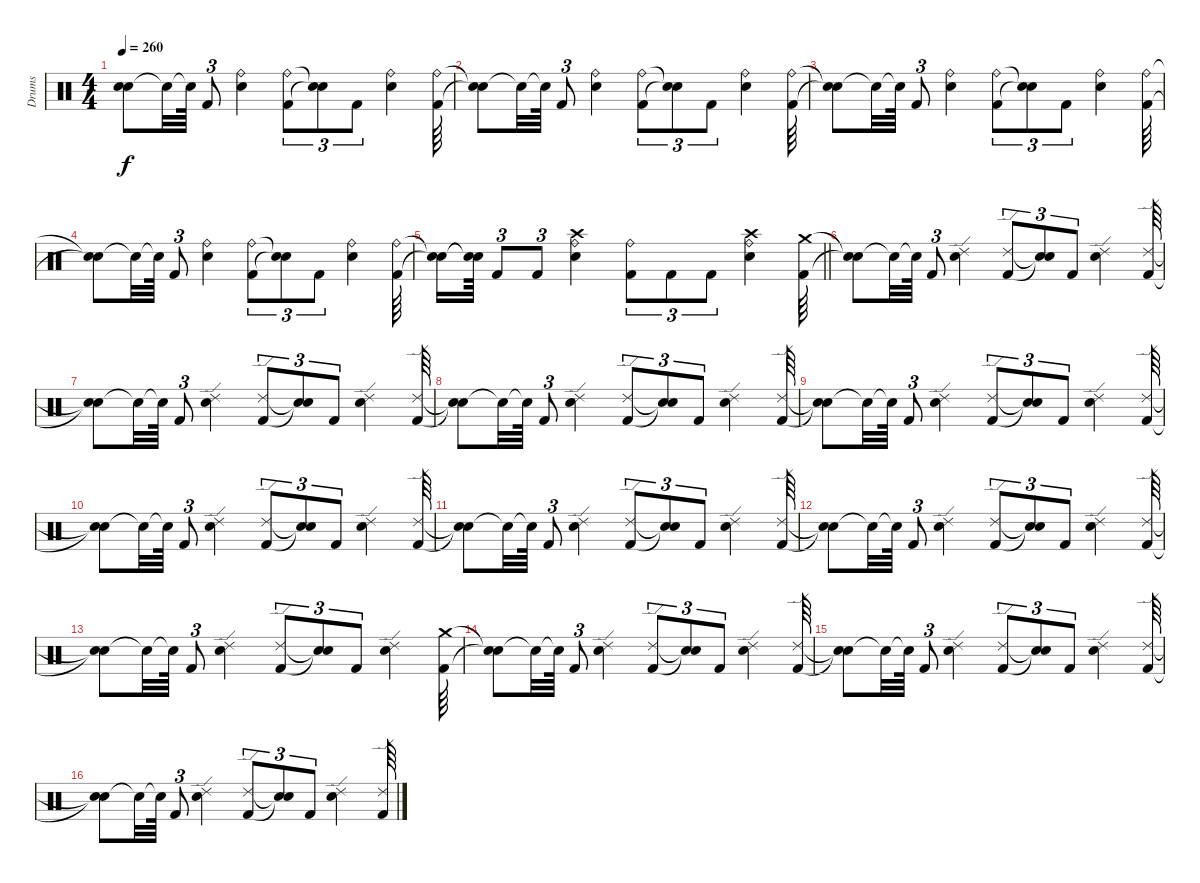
\track ("Drums" "Drums") {instrument percussion}
\staff {score}
\articulation defaults
\ts (4 4)
\tempo 260
\clef neutral
\ks c
("Snare (hit)"{t} "Snare (hit)"{t}).8{dy f} "Snare (hit)"{t}.32 "Snare (hit)"{t}.64 "Kick (hit) 2".8{tu (3 2)} ("Electric Snare (hit)" "Ride (bell)").4 ("Kick (hit) 2" "Ride (bell)").8{tu (3 2)} ("Snare (hit)"{t} "Snare (hit)"{t}).8{tu (3 2)} "Kick (hit) 2".8{tu (3 2)} ("Electric Snare (hit)" "Ride (bell)").4 ("Kick (hit) 2" "Ride (bell)").64 |
("Snare (hit)"{t} "Snare (hit)"{t}).8 "Snare (hit)"{t}.32 "Snare (hit)"{t}.64 "Kick (hit) 2".8{tu (3 2)} ("Electric Snare (hit)" "Ride (bell)").4 ("Kick (hit) 2" "Ride (bell)").8{tu (3 2)} ("Snare (hit)"{t} "Snare (hit)"{t}).8{tu (3 2)} "Kick (hit) 2".8{tu (3 2)} ("Electric Snare (hit)" "Ride (bell)").4 ("Kick (hit) 2" "Ride (bell)").64 |
("Snare (hit)"{t} "Snare (hit)"{t}).8 "Snare (hit)"{t}.32 "Snare (hit)"{t}.64 "Kick (hit) 2".8{tu (3 2)} ("Electric Snare (hit)" "Ride (bell)").4 ("Kick (hit) 2" "Ride (bell)").8{tu (3 2)} ("Snare (hit)"{t} "Snare (hit)"{t}).8{tu (3 2)} "Kick (hit) 2".8{tu (3 2)} ("Electric Snare (hit)" "Ride (bell)").4 ("Kick (hit) 2" "Ride (bell)").64 |
("Snare (hit)"{t} "Snare (hit)"{t}).8 "Snare (hit)"{t}.32 "Snare (hit)"{t}.64 "Kick (hit) 2".8{tu (3 2)} ("Electric Snare (hit)" "Ride (bell)").4 ("Kick (hit) 2" "Ride (bell)").8{tu (3 2)} ("Snare (hit)"{t} "Snare (hit)"{t}).8{tu (3 2)} "Kick (hit) 2".8{tu (3 2)} ("Electric Snare (hit)" "Ride (bell)").4 ("Kick (hit) 2" "Ride (bell)").64 |
\barLineRight lightlight
("Snare (hit)"{t} "Snare (hit)"{t}).16 ("Snare (hit)"{t} "Snare (hit)"{t}).64 "Kick (hit) 2".8{tu (3 2)} "Kick (hit) 2".8{tu (3 2)} ("Electric Snare (hit)" "Ride (bell)" "Crash high (hit)").4 ("Kick (hit) 2" "Ride (bell)").8{tu (3 2)} "Kick (hit) 2".8{tu (3 2)} "Kick (hit) 2".8{tu (3 2)} ("Electric Snare (hit)" "Ride (bell)" "Crash high (hit)").4 ("Kick (hit) 2" "Crash medium (hit)").64 |
("Snare (hit)"{t} "Snare (hit)"{t}).8 "Snare (hit)"{t}.32 "Snare (hit)"{t}.64 "Kick (hit) 2".8{tu (3 2)} ("Electric Snare (hit)" "Ride (edge) 2").4 ("Kick (hit) 2" "Ride (edge) 2").8{tu (3 2)} ("Snare (hit)"{t} "Snare (hit)"{t}).8{tu (3 2)} "Kick (hit) 2".8{tu (3 2)} ("Electric Snare (hit)" "Ride (edge) 2").4 ("Kick (hit) 2" "Ride (edge) 2").64 |
("Snare (hit)"{t} "Snare (hit)"{t}).8 "Snare (hit)"{t}.32 "Snare (hit)"{t}.64 "Kick (hit) 2".8{tu (3 2)} ("Electric Snare (hit)" "Ride (edge) 2").4 ("Kick (hit) 2" "Ride (edge) 2").8{tu (3 2)} ("Snare (hit)"{t} "Snare (hit)"{t}).8{tu (3 2)} "Kick (hit) 2".8{tu (3 2)} ("Electric Snare (hit)" "Ride (edge) 2").4 ("Kick (hit) 2" "Ride (edge) 2").64 |
("Snare (hit)"{t} "Snare (hit)"{t}).8 "Snare (hit)"{t}.32 "Snare (hit)"{t}.64 "Kick (hit) 2".8{tu (3 2)} ("Electric Snare (hit)" "Ride (edge) 2").4 ("Kick (hit) 2" "Ride (edge) 2").8{tu (3 2)} ("Snare (hit)"{t} "Snare (hit)"{t}).8{tu (3 2)} "Kick (hit) 2".8{tu (3 2)} ("Electric Snare (hit)" "Ride (edge) 2").4 ("Kick (hit) 2" "Ride (edge) 2").64 |
("Snare (hit)"{t} "Snare (hit)"{t}).8 "Snare (hit)"{t}.32 "Snare (hit)"{t}.64 "Kick (hit) 2".8{tu (3 2)} ("Electric Snare (hit)" "Ride (edge) 2").4 ("Kick (hit) 2" "Ride (edge) 2").8{tu (3 2)} ("Snare (hit)"{t} "Snare (hit)"{t}).8{tu (3 2)} "Kick (hit) 2".8{tu (3 2)} ("Electric Snare (hit)" "Ride (edge) 2").4 ("Kick (hit) 2" "Ride (edge) 2").64 |
("Snare (hit)"{t} "Snare (hit)"{t}).8 "Snare (hit)"{t}.32 "Snare (hit)"{t}.64 "Kick (hit) 2".8{tu (3 2)} ("Electric Snare (hit)" "Ride (edge) 2").4 ("Kick (hit) 2" "Ride (edge) 2").8{tu (3 2)} ("Snare (hit)"{t} "Snare (hit)"{t}).8{tu (3 2)} "Kick (hit) 2".8{tu (3 2)} ("Electric Snare (hit)" "Ride (edge) 2").4 ("Kick (hit) 2" "Ride (edge) 2").64 |
("Snare (hit)"{t} "Snare (hit)"{t}).8 "Snare (hit)"{t}.32 "Snare (hit)"{t}.64 "Kick (hit) 2".8{tu (3 2)} ("Electric Snare (hit)" "Ride (edge) 2").4 ("Kick (hit) 2" "Ride (edge) 2").8{tu (3 2)} ("Snare (hit)"{t} "Snare (hit)"{t}).8{tu (3 2)} "Kick (hit) 2".8{tu (3 2)} ("Electric Snare (hit)" "Ride (edge) 2").4 ("Kick (hit) 2" "Ride (edge) 2").64 |
("Snare (hit)"{t} "Snare (hit)"{t}).8 "Snare (hit)"{t}.32 "Snare (hit)"{t}.64 "Kick (hit) 2".8{tu (3 2)} ("Electric Snare (hit)" "Ride (edge) 2").4 ("Kick (hit) 2" "Ride (edge) 2").8{tu (3 2)} ("Snare (hit)"{t} "Snare (hit)"{t}).8{tu (3 2)} "Kick (hit) 2".8{tu (3 2)} ("Electric Snare (hit)" "Ride (edge) 2").4 ("Kick (hit) 2" "Ride (edge) 2").64 |
("Snare (hit)"{t} "Snare (hit)"{t}).8 "Snare (hit)"{t}.32 "Snare (hit)"{t}.64 "Kick (hit) 2".8{tu (3 2)} ("Electric Snare (hit)" "Ride (edge) 2").4 ("Kick (hit) 2" "Ride (edge) 2").8{tu (3 2)} ("Snare (hit)"{t} "Snare (hit)"{t}).8{tu (3 2)} "Kick (hit) 2".8{tu (3 2)} ("Electric Snare (hit)" "Ride (edge) 2").4 ("Kick (hit) 2" "Crash medium (hit)").64 |
("Snare (hit)"{t} "Snare (hit)"{t}).8 "Snare (hit)"{t}.32 "Snare (hit)"{t}.64 "Kick (hit) 2".8{tu (3 2)} ("Electric Snare (hit)" "Ride (edge) 2").4 ("Kick (hit) 2" "Ride (edge) 2").8{tu (3 2)} ("Snare (hit)"{t} "Snare (hit)"{t}).8{tu (3 2)} "Kick (hit) 2".8{tu (3 2)} ("Electric Snare (hit)" "Ride (edge) 2").4 ("Kick (hit) 2" "Ride (edge) 2").64 |
("Snare (hit)"{t} "Snare (hit)"{t}).8 "Snare (hit)"{t}.32 "Snare (hit)"{t}.64 "Kick (hit) 2".8{tu (3 2)} ("Electric Snare (hit)" "Ride (edge) 2").4 ("Kick (hit) 2" "Ride (edge) 2").8{tu (3 2)} ("Snare (hit)"{t} "Snare (hit)"{t}).8{tu (3 2)} "Kick (hit) 2".8{tu (3 2)} ("Electric Snare (hit)" "Ride (edge) 2").4 ("Kick (hit) 2" "Ride (edge) 2").64 |
("Snare (hit)"{t} "Snare (hit)"{t}).8 "Snare (hit)"{t}.32 "Snare (hit)"{t}.64 "Kick (hit) 2".8{tu (3 2)} ("Electric Snare (hit)" "Ride (edge) 2").4 ("Kick (hit) 2" "Ride (edge) 2").8{tu (3 2)} ("Snare (hit)"{t} "Snare (hit)"{t}).8{tu (3 2)} "Kick (hit) 2".8{tu (3 2)} ("Electric Snare (hit)" "Ride (edge) 2").4 ("Kick (hit) 2" "Ride (edge) 2").64
